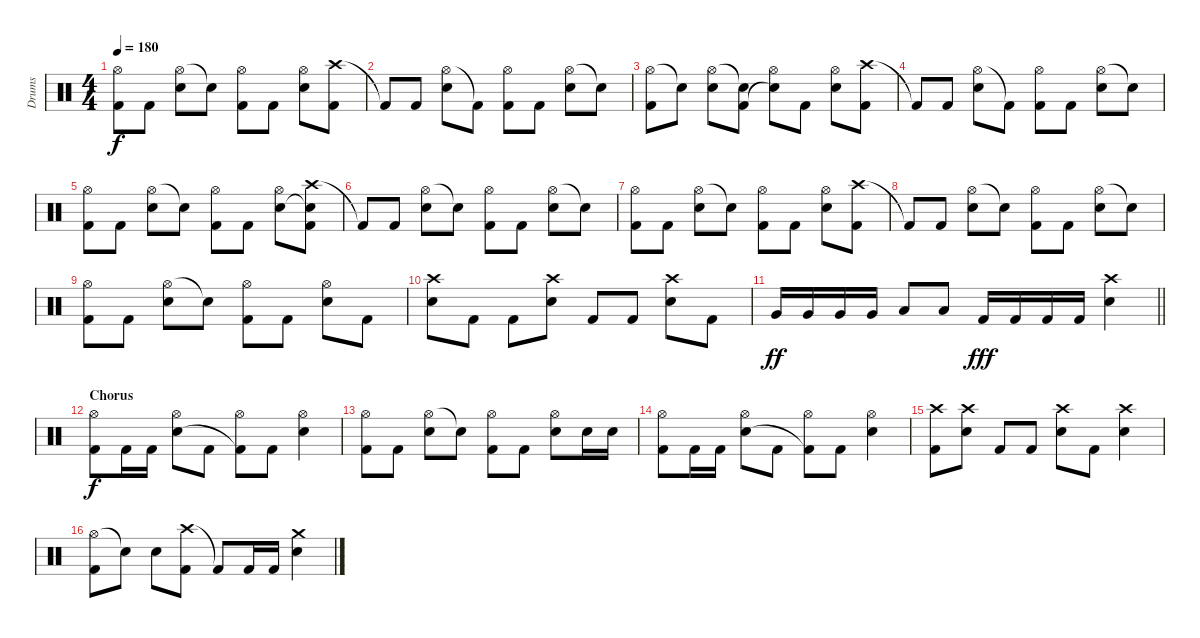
\track ("Drums" "Drums") {instrument percussion}
\staff {score}
\articulation defaults
\ts (4 4)
\tempo 180
\clef neutral
\ks c
("Hi-Hat (open)" "Kick (hit) 2").8{dy f} "Kick (hit) 2".8 ("Hi-Hat (open)" "Electric Snare (hit)").8 "Snare (hit)"{t}.8 ("Hi-Hat (open)" "Kick (hit) 2").8 "Kick (hit) 2".8 ("Hi-Hat (open)" "Electric Snare (hit)").8 ("Crash high (hit)" "Kick (hit) 2").8 |
"Kick (hit) 2"{t}.8 "Kick (hit) 2".8 ("Hi-Hat (open)" "Electric Snare (hit)").8 "Kick (hit) 2"{t}.8 ("Hi-Hat (open)" "Kick (hit) 2").8 "Kick (hit) 2".8 ("Hi-Hat (open)" "Electric Snare (hit)").8 "Snare (hit)"{t}.8 |
("Hi-Hat (open)" "Kick (hit) 2").8 "Snare (hit)"{t}.8 ("Hi-Hat (open)" "Electric Snare (hit)").8 ("Snare (hit)"{t} "Kick (hit) 2").8 ("Hi-Hat (open)" "Snare (hit)"{t}).8 "Kick (hit) 2".8 ("Hi-Hat (open)" "Electric Snare (hit)").8 ("Crash high (hit)" "Kick (hit) 2").8 |
"Kick (hit) 2"{t}.8 "Kick (hit) 2".8 ("Hi-Hat (open)" "Electric Snare (hit)").8 "Kick (hit) 2"{t}.8 ("Hi-Hat (open)" "Kick (hit) 2").8 "Kick (hit) 2".8 ("Hi-Hat (open)" "Electric Snare (hit)").8 "Snare (hit)"{t}.8 |
("Hi-Hat (open)" "Kick (hit) 2").8 "Kick (hit) 2".8 ("Hi-Hat (open)" "Electric Snare (hit)").8 "Snare (hit)"{t}.8 ("Hi-Hat (open)" "Kick (hit) 2").8 "Kick (hit) 2".8 ("Hi-Hat (open)" "Electric Snare (hit)").8 ("Crash high (hit)" "Snare (hit)"{t} "Kick (hit) 2").8 |
"Kick (hit) 2"{t}.8 "Kick (hit) 2".8 ("Hi-Hat (open)" "Electric Snare (hit)").8 "Snare (hit)"{t}.8 ("Hi-Hat (open)" "Kick (hit) 2").8 "Kick (hit) 2".8 ("Hi-Hat (open)" "Electric Snare (hit)").8 "Snare (hit)"{t}.8 |
("Hi-Hat (open)" "Kick (hit) 2").8 "Kick (hit) 2".8 ("Hi-Hat (open)" "Electric Snare (hit)").8 "Snare (hit)"{t}.8 ("Hi-Hat (open)" "Kick (hit) 2").8 "Kick (hit) 2".8 ("Hi-Hat (open)" "Electric Snare (hit)").8 ("Crash high (hit)" "Kick (hit) 2").8 |
"Kick (hit) 2"{t}.8 "Kick (hit) 2".8 ("Hi-Hat (open)" "Electric Snare (hit)").8 "Snare (hit)"{t}.8 ("Hi-Hat (open)" "Kick (hit) 2").8 "Kick (hit) 2".8 ("Hi-Hat (open)" "Electric Snare (hit)").8 "Snare (hit)"{t}.8 |
("Hi-Hat (open)" "Kick (hit) 2").8 "Kick (hit) 2".8 ("Hi-Hat (open)" "Electric Snare (hit)").8 "Snare (hit)"{t}.8 ("Hi-Hat (open)" "Kick (hit) 2").8 "Kick (hit) 2".8 ("Hi-Hat (open)" "Electric Snare (hit)").8 "Kick (hit) 2".8 |
("Crash high (hit)" "Electric Snare (hit)").8 "Kick (hit) 2".8 "Kick (hit) 2".8 ("Crash high (hit)" "Electric Snare (hit)").8 "Kick (hit) 2".8 "Kick (hit) 2".8 ("Crash high (hit)" "Electric Snare (hit)").8 "Kick (hit) 2".8 |
\barLineRight lightlight "Very Low Tom (hit)".16{dy ff} "Very Low Tom (hit)".16 "Very Low Tom (hit)".16 "Very Low Tom (hit)".16 "Low Floor Tom (hit)".8 "Low Floor Tom (hit)".8 "Kick (hit) 2".16{dy fff} "Kick (hit) 2".16 "Kick (hit) 2".16 "Kick (hit) 2".16
("Crash high (hit)" "Electric Snare (hit)").4 |
\section ("" "Chorus")
("Hi-Hat (open)" "Kick (hit) 2").8{dy f} "Kick (hit) 2".16 "Kick (hit) 2".16 ("Hi-Hat (open)" "Electric Snare (hit)").8 "Kick (hit) 2".8 ("Hi-Hat (open)" "Kick (hit) 2"{t}).8 "Kick (hit) 2".8 ("Hi-Hat (open)" "Electric Snare (hit)").4 |
("Hi-Hat (open)" "Kick (hit) 2").8 "Kick (hit) 2".8 ("Hi-Hat (open)" "Electric Snare (hit)").8 "Snare (hit)"{t}.8 ("Hi-Hat (open)" "Kick (hit) 2").8 "Kick (hit) 2".8 ("Hi-Hat (open)" "Electric Snare (hit)").8 "Electric Snare (hit)".16 "Electric Snare (hit)".16 |
("Hi-Hat (open)" "Kick (hit) 2").8 "Kick (hit) 2".16 "Kick (hit) 2".16 ("Hi-Hat (open)" "Electric Snare (hit)").8 "Kick (hit) 2".8 ("Hi-Hat (open)" "Kick (hit) 2"{t}).8 "Kick (hit) 2".8 ("Hi-Hat (open)" "Electric Snare (hit)").4 |
("Crash high (hit)" "Kick (hit) 2").8 ("Crash high (hit)" "Electric Snare (hit)").8 "Kick (hit) 2".8 "Kick (hit) 2".8 ("Crash high (hit)" "Electric Snare (hit)").8 "Kick (hit) 2".8 ("Crash high (hit)" "Electric Snare (hit)").4 |
("Hi-Hat (open)" "Kick (hit) 2").8 "Snare (hit)"{t}.8 "Electric Snare (hit)".8 ("Crash high (hit)" "Kick (hit) 2").8 "Kick (hit) 2"{t}.8 "Kick (hit) 2".16 "Kick (hit) 2".16 ("Crash medium (hit)" "Electric Snare (hit)").4
